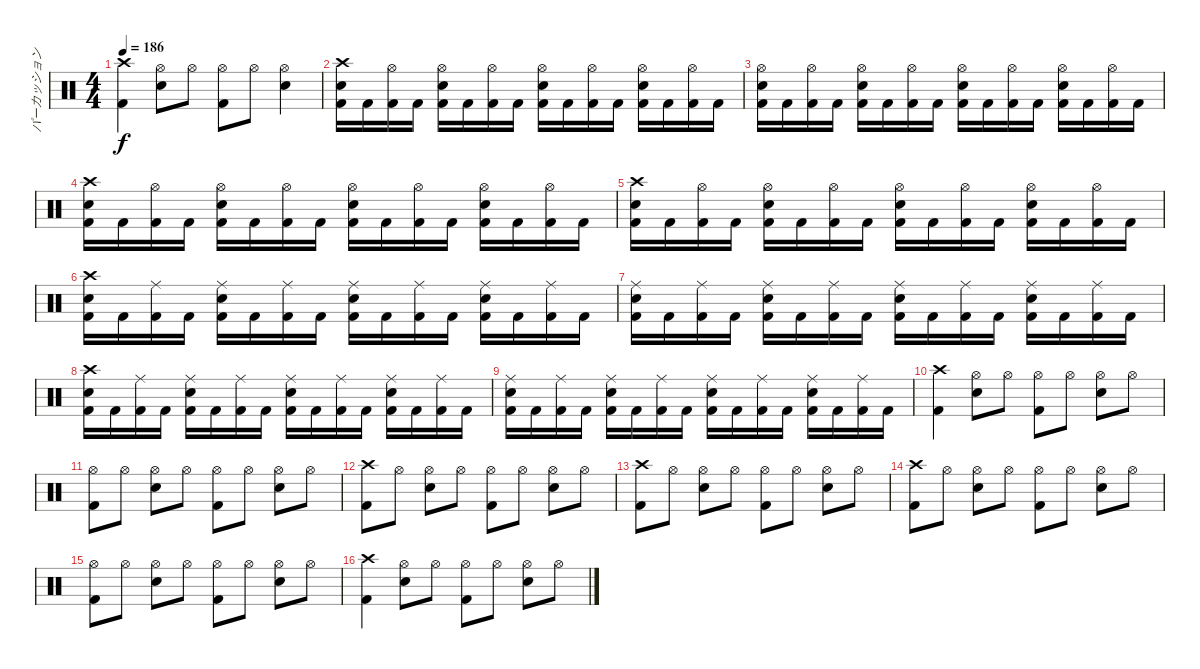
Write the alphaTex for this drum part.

\track ("パーカッション" "パーカッション") {instrument percussion}
\staff {score}
\articulation defaults
\ts (4 4)
\tempo 186
\clef neutral
\ks c
("Crash high (hit)" "Kick (hit) 2").4{dy f} ("Hi-Hat (open)" "Snare (hit) 2").8 "Hi-Hat (open)".8 ("Hi-Hat (open)" "Kick (hit) 2").8 "Hi-Hat (open)".8 ("Hi-Hat (open)" "Snare (hit) 2").4 |
("Crash high (hit)" "Snare (hit) 2" "Kick (hit) 2").16 "Kick (hit) 2".16 ("Hi-Hat (open)" "Kick (hit) 2").16 "Kick (hit) 2".16 ("Hi-Hat (open)" "Snare (hit) 2" "Kick (hit) 2").16 "Kick (hit) 2".16 ("Hi-Hat (open)" "Kick (hit) 2").16 "Kick (hit) 2".16 ("Hi-Hat (open)" "Snare (hit) 2" "Kick (hit) 2").16 "Kick (hit) 2".16 ("Hi-Hat (open)" "Kick (hit) 2").16 "Kick (hit) 2".16 ("Hi-Hat (open)" "Snare (hit) 2" "Kick (hit) 2").16 "Kick (hit) 2".16 ("Hi-Hat (open)" "Kick (hit) 2").16 "Kick (hit) 2".16 |
("Hi-Hat (open)" "Snare (hit) 2" "Kick (hit) 2").16 "Kick (hit) 2".16 ("Hi-Hat (open)" "Kick (hit) 2").16 "Kick (hit) 2".16 ("Hi-Hat (open)" "Snare (hit) 2" "Kick (hit) 2").16 "Kick (hit) 2".16 ("Hi-Hat (open)" "Kick (hit) 2").16 "Kick (hit) 2".16 ("Hi-Hat (open)" "Snare (hit) 2" "Kick (hit) 2").16 "Kick (hit) 2".16 ("Hi-Hat (open)" "Kick (hit) 2").16 "Kick (hit) 2".16 ("Hi-Hat (open)" "Snare (hit) 2" "Kick (hit) 2").16 "Kick (hit) 2".16 ("Hi-Hat (open)" "Kick (hit) 2").16 "Kick (hit) 2".16 |
("Crash high (hit)" "Snare (hit) 2" "Kick (hit) 2").16 "Kick (hit) 2".16 ("Hi-Hat (open)" "Kick (hit) 2").16 "Kick (hit) 2".16 ("Hi-Hat (open)" "Snare (hit) 2" "Kick (hit) 2").16 "Kick (hit) 2".16 ("Hi-Hat (open)" "Kick (hit) 2").16 "Kick (hit) 2".16 ("Hi-Hat (open)" "Snare (hit) 2" "Kick (hit) 2").16 "Kick (hit) 2".16 ("Hi-Hat (open)" "Kick (hit) 2").16 "Kick (hit) 2".16 ("Hi-Hat (open)" "Snare (hit) 2" "Kick (hit) 2").16 "Kick (hit) 2".16 ("Hi-Hat (open)" "Kick (hit) 2").16 "Kick (hit) 2".16 |
("Crash high (hit)" "Snare (hit) 2" "Kick (hit) 2").16 "Kick (hit) 2".16 ("Hi-Hat (open)" "Kick (hit) 2").16 "Kick (hit) 2".16 ("Hi-Hat (open)" "Snare (hit) 2" "Kick (hit) 2").16 "Kick (hit) 2".16 ("Hi-Hat (open)" "Kick (hit) 2").16 "Kick (hit) 2".16 ("Hi-Hat (open)" "Snare (hit) 2" "Kick (hit) 2").16 "Kick (hit) 2".16 ("Hi-Hat (open)" "Kick (hit) 2").16 "Kick (hit) 2".16 ("Hi-Hat (open)" "Snare (hit) 2" "Kick (hit) 2").16 "Kick (hit) 2".16 ("Hi-Hat (open)" "Kick (hit) 2").16 "Kick (hit) 2".16 |
("Crash high (hit)" "Snare (hit) 2" "Kick (hit) 2").16 "Kick (hit) 2".16 ("Ride (middle)" "Kick (hit) 2").16 "Kick (hit) 2".16 ("Ride (middle)" "Snare (hit) 2" "Kick (hit) 2").16 "Kick (hit) 2".16 ("Ride (middle)" "Kick (hit) 2").16 "Kick (hit) 2".16 ("Ride (middle)" "Snare (hit) 2" "Kick (hit) 2").16 "Kick (hit) 2".16 ("Ride (middle)" "Kick (hit) 2").16 "Kick (hit) 2".16 ("Ride (middle)" "Snare (hit) 2" "Kick (hit) 2").16 "Kick (hit) 2".16 ("Ride (middle)" "Kick (hit) 2").16 "Kick (hit) 2".16 |
("Ride (middle)" "Snare (hit) 2" "Kick (hit) 2").16 "Kick (hit) 2".16 ("Ride (middle)" "Kick (hit) 2").16 "Kick (hit) 2".16 ("Ride (middle)" "Snare (hit) 2" "Kick (hit) 2").16 "Kick (hit) 2".16 ("Ride (middle)" "Kick (hit) 2").16 "Kick (hit) 2".16 ("Ride (middle)" "Snare (hit) 2" "Kick (hit) 2").16 "Kick (hit) 2".16 ("Ride (middle)" "Kick (hit) 2").16 "Kick (hit) 2".16 ("Ride (middle)" "Snare (hit) 2" "Kick (hit) 2").16 "Kick (hit) 2".16 ("Ride (middle)" "Kick (hit) 2").16 "Kick (hit) 2".16 |
("Crash high (hit)" "Snare (hit) 2" "Kick (hit) 2").16 "Kick (hit) 2".16 ("Ride (middle)" "Kick (hit) 2").16 "Kick (hit) 2".16 ("Ride (middle)" "Snare (hit) 2" "Kick (hit) 2").16 "Kick (hit) 2".16 ("Ride (middle)" "Kick (hit) 2").16 "Kick (hit) 2".16 ("Ride (middle)" "Snare (hit) 2" "Kick (hit) 2").16 "Kick (hit) 2".16 ("Ride (middle)" "Kick (hit) 2").16 "Kick (hit) 2".16 ("Ride (middle)" "Snare (hit) 2" "Kick (hit) 2").16 "Kick (hit) 2".16 ("Ride (middle)" "Kick (hit) 2").16 "Kick (hit) 2".16 |
("Ride (middle)" "Snare (hit) 2" "Kick (hit) 2").16 "Kick (hit) 2".16 ("Ride (middle)" "Kick (hit) 2").16 "Kick (hit) 2".16 ("Ride (middle)" "Snare (hit) 2" "Kick (hit) 2").16 "Kick (hit) 2".16 ("Ride (middle)" "Kick (hit) 2").16 "Kick (hit) 2".16 ("Ride (middle)" "Snare (hit) 2" "Kick (hit) 2").16 "Kick (hit) 2".16 ("Ride (middle)" "Kick (hit) 2").16 "Kick (hit) 2".16 ("Ride (middle)" "Snare (hit) 2" "Kick (hit) 2").16 "Kick (hit) 2".16 ("Ride (middle)" "Kick (hit) 2").16 "Kick (hit) 2".16 |
("Crash high (hit)" "Kick (hit) 2").4 ("Hi-Hat (open)" "Snare (hit) 2").8 "Hi-Hat (open)".8 ("Hi-Hat (open)" "Kick (hit) 2").8 "Hi-Hat (open)".8 ("Hi-Hat (open)" "Snare (hit) 2").8 "Hi-Hat (open)".8 |
("Hi-Hat (open)" "Kick (hit) 2").8 "Hi-Hat (open)".8 ("Hi-Hat (open)" "Snare (hit) 2").8 "Hi-Hat (open)".8 ("Hi-Hat (open)" "Kick (hit) 2").8 "Hi-Hat (open)".8 ("Hi-Hat (open)" "Snare (hit) 2").8 "Hi-Hat (open)".8 |
("Crash high (hit)" "Kick (hit) 2").8 "Hi-Hat (open)".8 ("Hi-Hat (open)" "Snare (hit) 2").8 "Hi-Hat (open)".8 ("Hi-Hat (open)" "Kick (hit) 2").8 "Hi-Hat (open)".8 ("Hi-Hat (open)" "Snare (hit) 2").8 "Hi-Hat (open)".8 |
("Crash high (hit)" "Kick (hit) 2").8 "Hi-Hat (open)".8 ("Hi-Hat (open)" "Snare (hit) 2").8 "Hi-Hat (open)".8 ("Hi-Hat (open)" "Kick (hit) 2").8 "Hi-Hat (open)".8 ("Hi-Hat (open)" "Snare (hit) 2").8 "Hi-Hat (open)".8 |
("Crash high (hit)" "Kick (hit) 2").8 "Hi-Hat (open)".8 ("Hi-Hat (open)" "Snare (hit) 2").8 "Hi-Hat (open)".8 ("Hi-Hat (open)" "Kick (hit) 2").8 "Hi-Hat (open)".8 ("Hi-Hat (open)" "Snare (hit) 2").8 "Hi-Hat (open)".8 |
("Hi-Hat (open)" "Kick (hit) 2").8 "Hi-Hat (open)".8 ("Hi-Hat (open)" "Snare (hit) 2").8 "Hi-Hat (open)".8 ("Hi-Hat (open)" "Kick (hit) 2").8 "Hi-Hat (open)".8 ("Hi-Hat (open)" "Snare (hit) 2").8 "Hi-Hat (open)".8 |
("Crash high (hit)" "Kick (hit) 2").4 ("Hi-Hat (open)" "Snare (hit) 2").8 "Hi-Hat (open)".8 ("Hi-Hat (open)" "Kick (hit) 2").8 "Hi-Hat (open)".8 ("Hi-Hat (open)" "Snare (hit) 2").8 "Hi-Hat (open)".8
